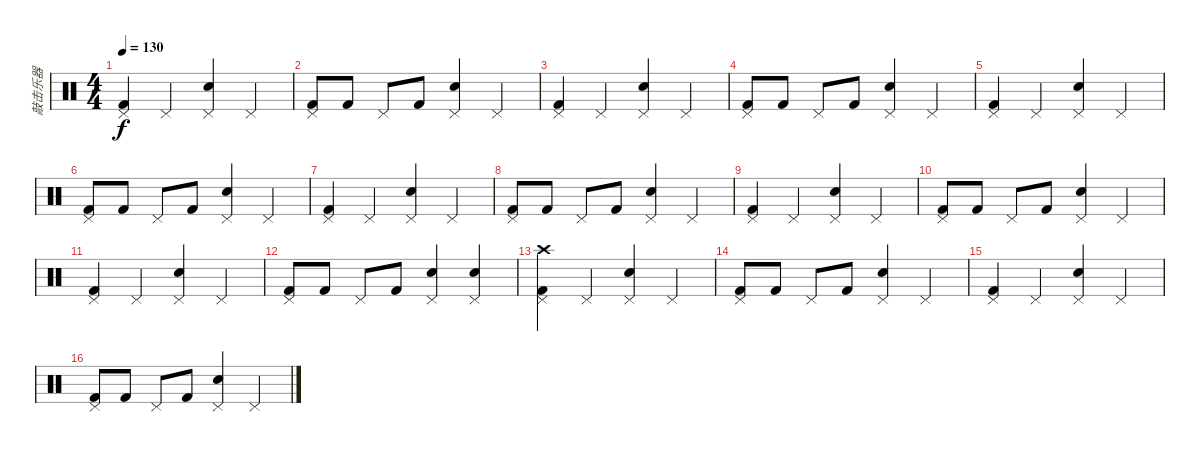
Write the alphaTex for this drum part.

\track ("敲击乐器" "敲击乐器") {instrument percussion}
\staff {score}
\articulation defaults
\ts (4 4)
\tempo 130
\clef neutral
\ks c
("Kick (hit) 2" "Pedal Hi-Hat (hit)").4{dy f} "Pedal Hi-Hat (hit)".4 ("Pedal Hi-Hat (hit)" "Electric Snare (hit)").4 "Pedal Hi-Hat (hit)".4 |
("Pedal Hi-Hat (hit)" "Kick (hit) 2").8 "Kick (hit) 2".8 "Pedal Hi-Hat (hit)".8 "Kick (hit) 2".8 ("Pedal Hi-Hat (hit)" "Electric Snare (hit)").4 "Pedal Hi-Hat (hit)".4 |
("Kick (hit) 2" "Pedal Hi-Hat (hit)").4 "Pedal Hi-Hat (hit)".4 ("Pedal Hi-Hat (hit)" "Electric Snare (hit)").4 "Pedal Hi-Hat (hit)".4 |
("Pedal Hi-Hat (hit)" "Kick (hit) 2").8 "Kick (hit) 2".8 "Pedal Hi-Hat (hit)".8 "Kick (hit) 2".8 ("Pedal Hi-Hat (hit)" "Electric Snare (hit)").4 "Pedal Hi-Hat (hit)".4 |
("Kick (hit) 2" "Pedal Hi-Hat (hit)").4 "Pedal Hi-Hat (hit)".4 ("Pedal Hi-Hat (hit)" "Electric Snare (hit)").4 "Pedal Hi-Hat (hit)".4 |
("Pedal Hi-Hat (hit)" "Kick (hit) 2").8 "Kick (hit) 2".8 "Pedal Hi-Hat (hit)".8 "Kick (hit) 2".8 ("Pedal Hi-Hat (hit)" "Electric Snare (hit)").4 "Pedal Hi-Hat (hit)".4 |
("Kick (hit) 2" "Pedal Hi-Hat (hit)").4 "Pedal Hi-Hat (hit)".4 ("Pedal Hi-Hat (hit)" "Electric Snare (hit)").4 "Pedal Hi-Hat (hit)".4 |
("Pedal Hi-Hat (hit)" "Kick (hit) 2").8 "Kick (hit) 2".8 "Pedal Hi-Hat (hit)".8 "Kick (hit) 2".8 ("Pedal Hi-Hat (hit)" "Electric Snare (hit)").4 "Pedal Hi-Hat (hit)".4 |
("Kick (hit) 2" "Pedal Hi-Hat (hit)").4 "Pedal Hi-Hat (hit)".4 ("Pedal Hi-Hat (hit)" "Electric Snare (hit)").4 "Pedal Hi-Hat (hit)".4 |
("Pedal Hi-Hat (hit)" "Kick (hit) 2").8 "Kick (hit) 2".8 "Pedal Hi-Hat (hit)".8 "Kick (hit) 2".8 ("Pedal Hi-Hat (hit)" "Electric Snare (hit)").4 "Pedal Hi-Hat (hit)".4 |
("Kick (hit) 2" "Pedal Hi-Hat (hit)").4 "Pedal Hi-Hat (hit)".4 ("Pedal Hi-Hat (hit)" "Electric Snare (hit)").4 "Pedal Hi-Hat (hit)".4 |
("Pedal Hi-Hat (hit)" "Kick (hit) 2").8 "Kick (hit) 2".8 "Pedal Hi-Hat (hit)".8 "Kick (hit) 2".8 ("Pedal Hi-Hat (hit)" "Electric Snare (hit)").4 ("Pedal Hi-Hat (hit)" "Electric Snare (hit)").4 |
("Crash high (hit)" "Kick (hit) 2" "Pedal Hi-Hat (hit)").4 "Pedal Hi-Hat (hit)".4 ("Pedal Hi-Hat (hit)" "Electric Snare (hit)").4 "Pedal Hi-Hat (hit)".4 |
("Pedal Hi-Hat (hit)" "Kick (hit) 2").8 "Kick (hit) 2".8 "Pedal Hi-Hat (hit)".8 "Kick (hit) 2".8 ("Pedal Hi-Hat (hit)" "Electric Snare (hit)").4 "Pedal Hi-Hat (hit)".4 |
("Kick (hit) 2" "Pedal Hi-Hat (hit)").4 "Pedal Hi-Hat (hit)".4 ("Pedal Hi-Hat (hit)" "Electric Snare (hit)").4 "Pedal Hi-Hat (hit)".4 |
("Pedal Hi-Hat (hit)" "Kick (hit) 2").8 "Kick (hit) 2".8 "Pedal Hi-Hat (hit)".8 "Kick (hit) 2".8 ("Pedal Hi-Hat (hit)" "Electric Snare (hit)").4 "Pedal Hi-Hat (hit)".4
